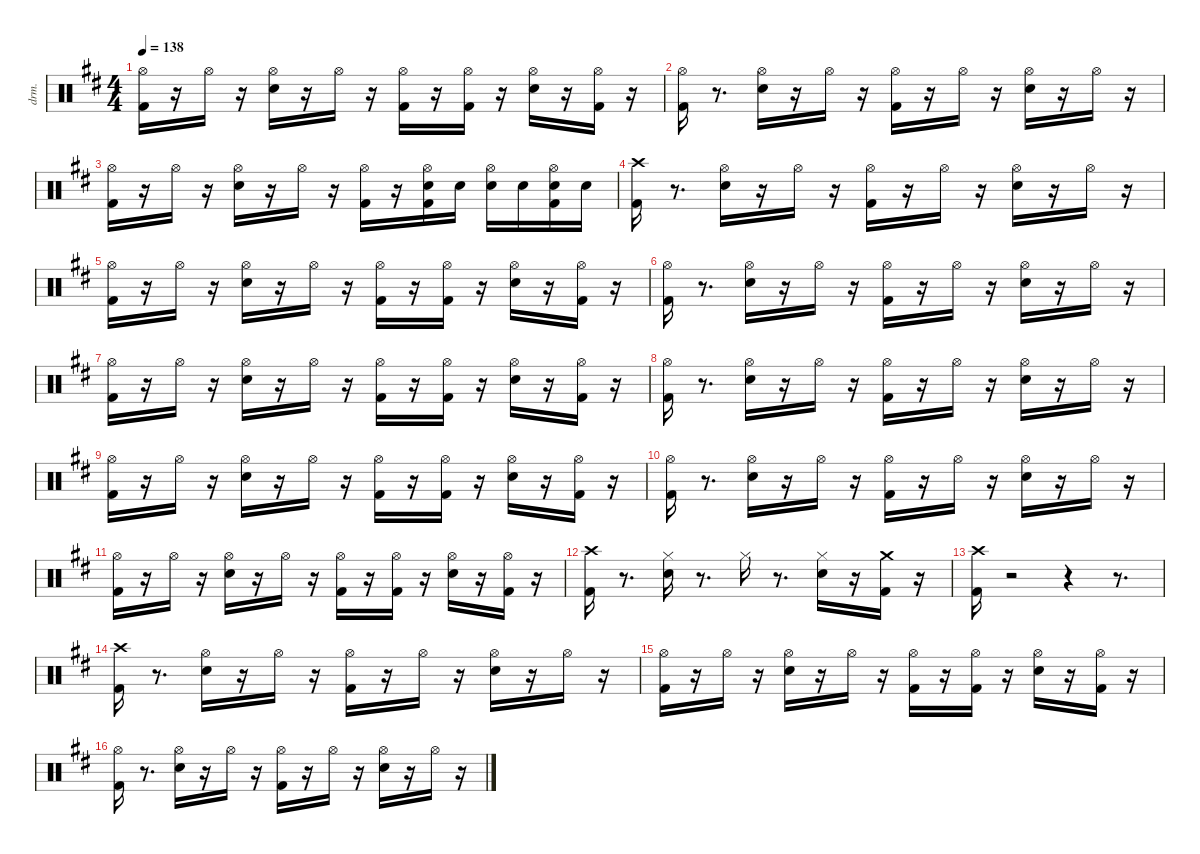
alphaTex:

\hideDynamics
\bracketExtendMode groupsimilarinstruments
\otherSystemsTrackNameOrientation horizontal
\track ("Drumkit" "drm.") {instrument percussion}
\staff {score}
\articulation defaults
\ts (4 4)
\tempo 138
\clef neutral
\ks d
("Kick (hit) 2"{acc forcenatural} "Hi-Hat (open)"{acc #}).16{dy fff} r.16 "Hi-Hat (open)"{acc #}.16{dy p} r.16 ("Snare (hit) 2"{acc forcenatural} "Hi-Hat (open)"{acc #}).16{dy f} r.16 "Hi-Hat (open)"{acc #}.16{dy p} r.16 ("Kick (hit) 2"{acc forcenatural} "Hi-Hat (open)"{acc #}).16{dy ff} r.16 ("Kick (hit) 2"{acc forcenatural} "Hi-Hat (open)"{acc #}).16 r.16 ("Snare (hit) 2"{acc forcenatural} "Hi-Hat (open)"{acc #}).16{dy mp} r.16 ("Kick (hit) 2"{acc forcenatural} "Hi-Hat (open)"{acc #}).16{dy f} r.16 |
("Kick (hit) 2"{acc forcenatural} "Hi-Hat (open)"{acc #}).16 r.8{d} ("Snare (hit) 2"{acc forcenatural} "Hi-Hat (open)"{acc #}).16{dy mf} r.16 "Hi-Hat (open)"{acc #}.16{dy p} r.16 ("Kick (hit) 2"{acc forcenatural} "Hi-Hat (open)"{acc #}).16{dy ff} r.16 "Hi-Hat (open)"{acc #}.16{dy p} r.16 ("Snare (hit) 2"{acc forcenatural} "Hi-Hat (open)"{acc #}).16{dy f} r.16 "Hi-Hat (open)"{acc #}.16{dy p} r.16 |
("Kick (hit) 2"{acc forcenatural} "Hi-Hat (open)"{acc #}).16{dy fff} r.16 "Hi-Hat (open)"{acc #}.16{dy p} r.16 ("Snare (hit) 2"{acc forcenatural} "Hi-Hat (open)"{acc #}).16{dy f} r.16 "Hi-Hat (open)"{acc #}.16{dy p} r.16 ("Kick (hit) 2"{acc forcenatural} "Hi-Hat (open)"{acc #}).16{dy ff} r.16 ("Kick (hit) 2"{acc forcenatural} "Snare (hit) 2"{acc forcenatural} "Hi-Hat (open)"{acc #}).16 "Snare (hit) 2"{acc forcenatural}.16{dy mp} ("Snare (hit) 2"{acc forcenatural} "Hi-Hat (open)"{acc #}).16 "Snare (hit) 2"{acc forcenatural}.16{dy mf} ("Kick (hit) 2"{acc forcenatural} "Snare (hit) 2"{acc forcenatural} "Hi-Hat (open)"{acc #}).16{dy f} "Snare (hit) 2"{acc forcenatural}.16 |
("Kick (hit) 2"{acc forcenatural} "Crash high (hit)"{acc #}).16 r.8{d} ("Snare (hit) 2"{acc forcenatural} "Hi-Hat (open)"{acc #}).16 r.16 "Hi-Hat (open)"{acc #}.16{dy p} r.16 ("Kick (hit) 2"{acc forcenatural} "Hi-Hat (open)"{acc #}).16{dy f} r.16 "Hi-Hat (open)"{acc #}.16{dy p} r.16 ("Snare (hit) 2"{acc forcenatural} "Hi-Hat (open)"{acc #}).16{dy f} r.16 "Hi-Hat (open)"{acc #}.16{dy p} r.16 |
("Kick (hit) 2"{acc forcenatural} "Hi-Hat (open)"{acc #}).16{dy fff} r.16 "Hi-Hat (open)"{acc #}.16{dy p} r.16 ("Snare (hit) 2"{acc forcenatural} "Hi-Hat (open)"{acc #}).16{dy f} r.16 "Hi-Hat (open)"{acc #}.16{dy p} r.16 ("Kick (hit) 2"{acc forcenatural} "Hi-Hat (open)"{acc #}).16{dy ff} r.16 ("Kick (hit) 2"{acc forcenatural} "Hi-Hat (open)"{acc #}).16 r.16 ("Snare (hit) 2"{acc forcenatural} "Hi-Hat (open)"{acc #}).16{dy mp} r.16 ("Kick (hit) 2"{acc forcenatural} "Hi-Hat (open)"{acc #}).16{dy f} r.16 |
("Kick (hit) 2"{acc forcenatural} "Hi-Hat (open)"{acc #}).16 r.8{d} ("Snare (hit) 2"{acc forcenatural} "Hi-Hat (open)"{acc #}).16 r.16 "Hi-Hat (open)"{acc #}.16{dy p} r.16 ("Kick (hit) 2"{acc forcenatural} "Hi-Hat (open)"{acc #}).16{dy f} r.16 "Hi-Hat (open)"{acc #}.16{dy p} r.16 ("Snare (hit) 2"{acc forcenatural} "Hi-Hat (open)"{acc #}).16{dy f} r.16 "Hi-Hat (open)"{acc #}.16{dy p} r.16 |
("Kick (hit) 2"{acc forcenatural} "Hi-Hat (open)"{acc #}).16{dy ff} r.16 "Hi-Hat (open)"{acc #}.16{dy p} r.16 ("Snare (hit) 2"{acc forcenatural} "Hi-Hat (open)"{acc #}).16{dy mf} r.16 "Hi-Hat (open)"{acc #}.16{dy p} r.16 ("Kick (hit) 2"{acc forcenatural} "Hi-Hat (open)"{acc #}).16{dy ff} r.16 ("Kick (hit) 2"{acc forcenatural} "Hi-Hat (open)"{acc #}).16 r.16 ("Snare (hit) 2"{acc forcenatural} "Hi-Hat (open)"{acc #}).16{dy mp} r.16 ("Kick (hit) 2"{acc forcenatural} "Hi-Hat (open)"{acc #}).16{dy f} r.16 |
("Kick (hit) 2"{acc forcenatural} "Hi-Hat (open)"{acc #}).16 r.8{d} ("Snare (hit) 2"{acc forcenatural} "Hi-Hat (open)"{acc #}).16 r.16 "Hi-Hat (open)"{acc #}.16{dy p} r.16 ("Kick (hit) 2"{acc forcenatural} "Hi-Hat (open)"{acc #}).16{dy f} r.16 "Hi-Hat (open)"{acc #}.16{dy p} r.16 ("Snare (hit) 2"{acc forcenatural} "Hi-Hat (open)"{acc #}).16{dy mf} r.16 "Hi-Hat (open)"{acc #}.16{dy p} r.16 |
("Kick (hit) 2"{acc forcenatural} "Hi-Hat (open)"{acc #}).16{dy fff} r.16 "Hi-Hat (open)"{acc #}.16{dy p} r.16 ("Snare (hit) 2"{acc forcenatural} "Hi-Hat (open)"{acc #}).16{dy f} r.16 "Hi-Hat (open)"{acc #}.16{dy p} r.16 ("Kick (hit) 2"{acc forcenatural} "Hi-Hat (open)"{acc #}).16{dy ff} r.16 ("Kick (hit) 2"{acc forcenatural} "Hi-Hat (open)"{acc #}).16 r.16 ("Snare (hit) 2"{acc forcenatural} "Hi-Hat (open)"{acc #}).16{dy mp} r.16 ("Kick (hit) 2"{acc forcenatural} "Hi-Hat (open)"{acc #}).16{dy f} r.16 |
("Kick (hit) 2"{acc forcenatural} "Hi-Hat (open)"{acc #}).16 r.8{d} ("Snare (hit) 2"{acc forcenatural} "Hi-Hat (open)"{acc #}).16 r.16 "Hi-Hat (open)"{acc #}.16{dy p} r.16 ("Kick (hit) 2"{acc forcenatural} "Hi-Hat (open)"{acc #}).16{dy f} r.16 "Hi-Hat (open)"{acc #}.16{dy p} r.16 ("Snare (hit) 2"{acc forcenatural} "Hi-Hat (open)"{acc #}).16{dy f} r.16 "Hi-Hat (open)"{acc #}.16{dy p} r.16 |
("Kick (hit) 2"{acc forcenatural} "Hi-Hat (open)"{acc #}).16{dy fff} r.16 "Hi-Hat (open)"{acc #}.16{dy p} r.16 ("Snare (hit) 2"{acc forcenatural} "Hi-Hat (open)"{acc #}).16{dy f} r.16 "Hi-Hat (open)"{acc #}.16{dy p} r.16 ("Kick (hit) 2"{acc forcenatural} "Hi-Hat (open)"{acc #}).16{dy ff} r.16 ("Kick (hit) 2"{acc forcenatural} "Hi-Hat (open)"{acc #}).16 r.16 ("Snare (hit) 2"{acc forcenatural} "Hi-Hat (open)"{acc #}).16{dy mp} r.16 ("Kick (hit) 2"{acc forcenatural} "Hi-Hat (open)"{acc #}).16{dy f} r.16 |
("Kick (hit) 2"{acc forcenatural} "Crash high (hit)"{acc #}).16 r.8{d} ("Snare (hit) 2"{acc forcenatural} "Hi-Hat (closed)"{acc #}).16 r.8{d} "Hi-Hat (closed)"{acc #}.16{dy mp} r.8{d} ("Snare (hit) 2"{acc forcenatural} "Hi-Hat (closed)"{acc #}).16{dy f} r.16 ("Kick (hit) 2"{acc forcenatural} "Crash medium (hit)"{acc forcenatural}).16{dy ff} r.16 |
("Kick (hit) 2"{acc forcenatural} "Crash high (hit)"{acc #}).16 r.2 r.4 r.8{d} |
("Kick (hit) 2"{acc forcenatural} "Crash high (hit)"{acc #}).16{dy f} r.8{d} ("Snare (hit) 2"{acc forcenatural} "Hi-Hat (open)"{acc #}).16 r.16 "Hi-Hat (open)"{acc #}.16{dy p} r.16 ("Kick (hit) 2"{acc forcenatural} "Hi-Hat (open)"{acc #}).16{dy f} r.16 "Hi-Hat (open)"{acc #}.16{dy p} r.16 ("Snare (hit) 2"{acc forcenatural} "Hi-Hat (open)"{acc #}).16{dy mf} r.16 "Hi-Hat (open)"{acc #}.16{dy p} r.16 |
("Kick (hit) 2"{acc forcenatural} "Hi-Hat (open)"{acc #}).16{dy fff} r.16 "Hi-Hat (open)"{acc #}.16{dy p} r.16 ("Snare (hit) 2"{acc forcenatural} "Hi-Hat (open)"{acc #}).16{dy f} r.16 "Hi-Hat (open)"{acc #}.16{dy p} r.16 ("Kick (hit) 2"{acc forcenatural} "Hi-Hat (open)"{acc #}).16{dy ff} r.16 ("Kick (hit) 2"{acc forcenatural} "Hi-Hat (open)"{acc #}).16 r.16 ("Snare (hit) 2"{acc forcenatural} "Hi-Hat (open)"{acc #}).16{dy mp} r.16 ("Kick (hit) 2"{acc forcenatural} "Hi-Hat (open)"{acc #}).16{dy f} r.16 |
("Kick (hit) 2"{acc forcenatural} "Hi-Hat (open)"{acc #}).16 r.8{d} ("Snare (hit) 2"{acc forcenatural} "Hi-Hat (open)"{acc #}).16 r.16 "Hi-Hat (open)"{acc #}.16{dy p} r.16 ("Kick (hit) 2"{acc forcenatural} "Hi-Hat (open)"{acc #}).16{dy ff} r.16 "Hi-Hat (open)"{acc #}.16{dy p} r.16 ("Snare (hit) 2"{acc forcenatural} "Hi-Hat (open)"{acc #}).16{dy f} r.16 "Hi-Hat (open)"{acc #}.16{dy p} r.16
